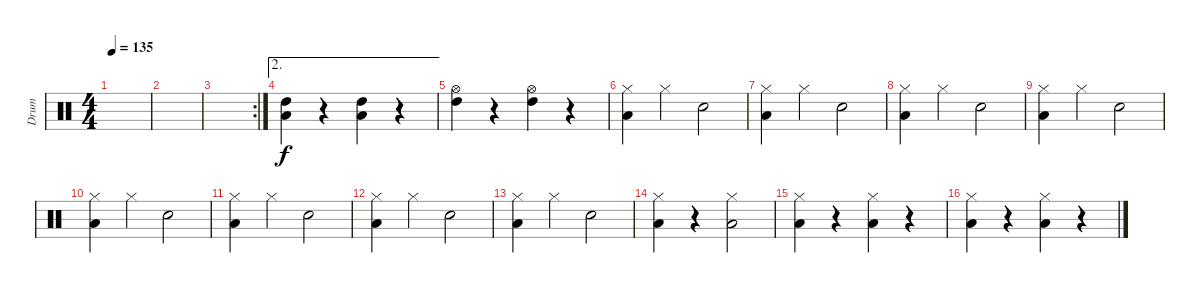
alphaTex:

\track ("Drum" "Drum") {instrument percussion}
\staff {score}
\articulation defaults
\ts (4 4)
\tempo 135
\clef neutral
\ks c
|
|
\rc 2
|
\ae 2
("High Tom (hit)" "Low Tom (hit)").4 r.4 ("High Tom (hit)" "Low Tom (hit)").4 r.4 |
("Hi-Hat (open)" "High Tom (hit)").4 r.4 ("Hi-Hat (open)" "High Tom (hit)").4 r.4 |
("Hi-Hat (closed)" "Low Tom (hit)").4 "Hi-Hat (closed)".4 "Snare (hit) 2".2 |
("Hi-Hat (closed)" "Low Tom (hit)").4 "Hi-Hat (closed)".4 "Snare (hit) 2".2 |
("Hi-Hat (closed)" "Low Tom (hit)").4 "Hi-Hat (closed)".4 "Snare (hit) 2".2 |
("Hi-Hat (closed)" "Low Tom (hit)").4 "Hi-Hat (closed)".4 "Snare (hit) 2".2 |
("Hi-Hat (closed)" "Low Tom (hit)").4 "Hi-Hat (closed)".4 "Snare (hit) 2".2 |
("Hi-Hat (closed)" "Low Tom (hit)").4 "Hi-Hat (closed)".4 "Snare (hit) 2".2 |
("Hi-Hat (closed)" "Low Tom (hit)").4 "Hi-Hat (closed)".4 "Snare (hit) 2".2 |
("Hi-Hat (closed)" "Low Tom (hit)").4 "Hi-Hat (closed)".4 "Snare (hit) 2".2 |
("Hi-Hat (closed)" "Low Tom (hit)").4 r.4 ("Hi-Hat (closed)" "Low Tom (hit)").2 |
("Hi-Hat (closed)" "Low Tom (hit)").4 r.4 ("Hi-Hat (closed)" "Low Tom (hit)").4 r.4 |
("Hi-Hat (closed)" "Low Tom (hit)").4 r.4 ("Hi-Hat (closed)" "Low Tom (hit)").4 r.4
